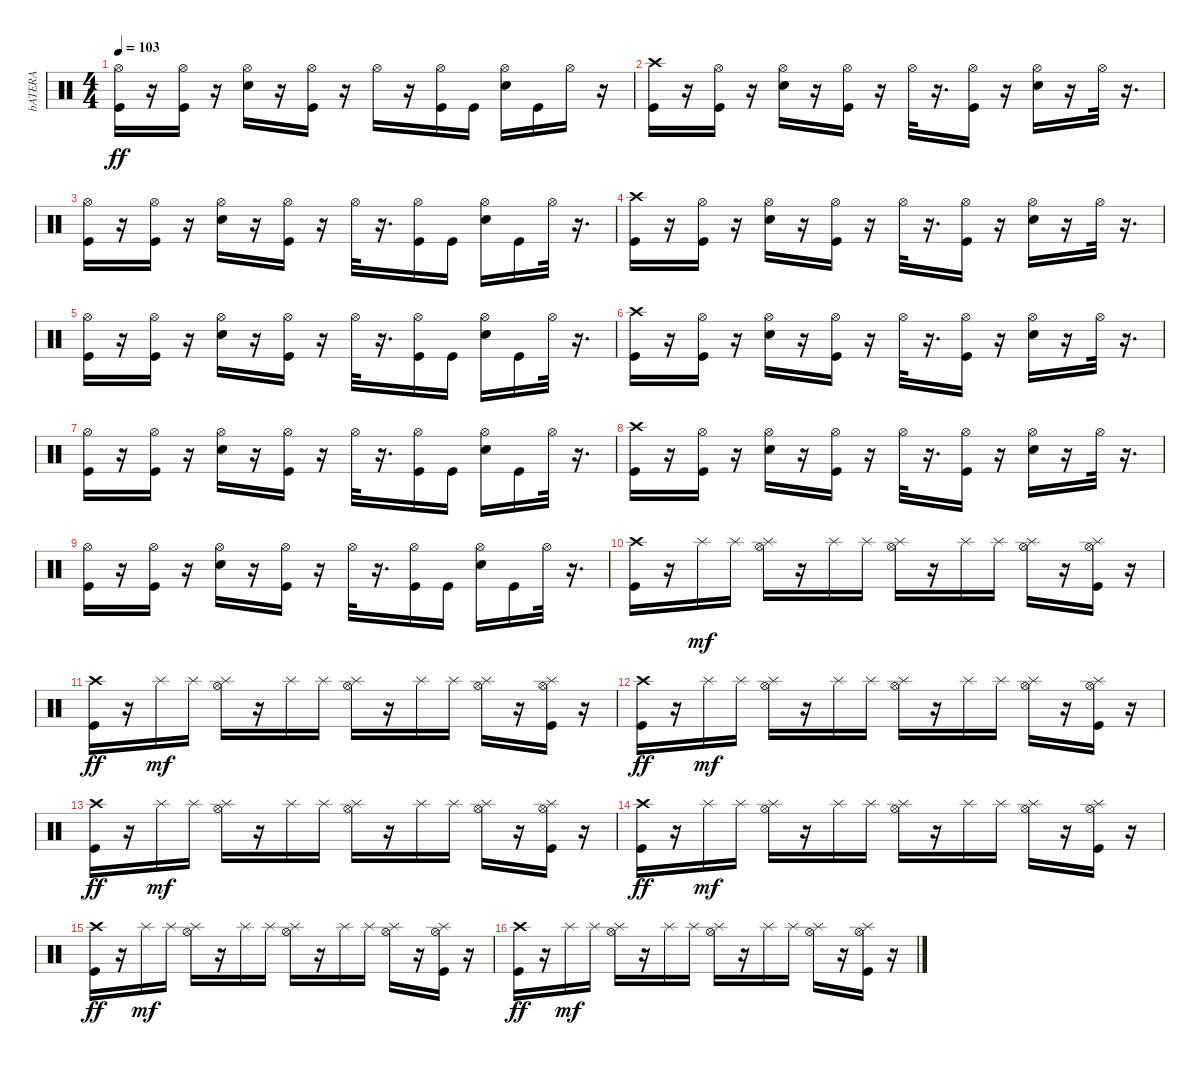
\track ("bATERA" "bATERA") {instrument percussion}
\staff {score}
\articulation defaults
\ts (4 4)
\tempo 103
\clef neutral
\ks c
("Kick (hit)" "Hi-Hat (open)").16{dy ff} r.16 ("Kick (hit)" "Hi-Hat (open)").16 r.16 ("Snare (hit) 2" "Hi-Hat (open)").16 r.16 ("Kick (hit)" "Hi-Hat (open)").16 r.16 "Hi-Hat (open)".16 r.16 ("Kick (hit)" "Hi-Hat (open)").16 "Kick (hit)".16 ("Hi-Hat (open)" "Snare (hit) 2").16 "Kick (hit)".16 "Hi-Hat (open)".16 r.16 |
("Crash high (hit)" "Kick (hit)").16 r.16 ("Kick (hit)" "Hi-Hat (open)").16 r.16 ("Snare (hit) 2" "Hi-Hat (open)").16 r.16 ("Kick (hit)" "Hi-Hat (open)").16 r.16 "Hi-Hat (open)".32 r.16{d} ("Kick (hit)" "Hi-Hat (open)").16 r.16 ("Snare (hit) 2" "Hi-Hat (open)").16 r.16 "Hi-Hat (open)".32 r.16{d} |
("Kick (hit)" "Hi-Hat (open)").16 r.16 ("Kick (hit)" "Hi-Hat (open)").16 r.16 ("Snare (hit) 2" "Hi-Hat (open)").16 r.16 ("Kick (hit)" "Hi-Hat (open)").16 r.16 "Hi-Hat (open)".32 r.16{d} ("Kick (hit)" "Hi-Hat (open)").16 "Kick (hit)".16 ("Snare (hit) 2" "Hi-Hat (open)").16 "Kick (hit)".16 "Hi-Hat (open)".32 r.16{d} |
("Kick (hit)" "Crash high (hit)").16 r.16 ("Kick (hit)" "Hi-Hat (open)").16 r.16 ("Snare (hit) 2" "Hi-Hat (open)").16 r.16 ("Kick (hit)" "Hi-Hat (open)").16 r.16 "Hi-Hat (open)".32 r.16{d} ("Kick (hit)" "Hi-Hat (open)").16 r.16 ("Snare (hit) 2" "Hi-Hat (open)").16 r.16 "Hi-Hat (open)".32 r.16{d} |
("Kick (hit)" "Hi-Hat (open)").16 r.16 ("Kick (hit)" "Hi-Hat (open)").16 r.16 ("Snare (hit) 2" "Hi-Hat (open)").16 r.16 ("Kick (hit)" "Hi-Hat (open)").16 r.16 "Hi-Hat (open)".32 r.16{d} ("Kick (hit)" "Hi-Hat (open)").16 "Kick (hit)".16 ("Snare (hit) 2" "Hi-Hat (open)").16 "Kick (hit)".16 "Hi-Hat (open)".32 r.16{d} |
("Crash high (hit)" "Kick (hit)").16 r.16 ("Kick (hit)" "Hi-Hat (open)").16 r.16 ("Snare (hit) 2" "Hi-Hat (open)").16 r.16 ("Kick (hit)" "Hi-Hat (open)").16 r.16 "Hi-Hat (open)".32 r.16{d} ("Kick (hit)" "Hi-Hat (open)").16 r.16 ("Snare (hit) 2" "Hi-Hat (open)").16 r.16 "Hi-Hat (open)".32 r.16{d} |
("Kick (hit)" "Hi-Hat (open)").16 r.16 ("Kick (hit)" "Hi-Hat (open)").16 r.16 ("Snare (hit) 2" "Hi-Hat (open)").16 r.16 ("Kick (hit)" "Hi-Hat (open)").16 r.16 "Hi-Hat (open)".32 r.16{d} ("Kick (hit)" "Hi-Hat (open)").16 "Kick (hit)".16 ("Snare (hit) 2" "Hi-Hat (open)").16 "Kick (hit)".16 "Hi-Hat (open)".32 r.16{d} |
("Kick (hit)" "Crash high (hit)").16 r.16 ("Kick (hit)" "Hi-Hat (open)").16 r.16 ("Snare (hit) 2" "Hi-Hat (open)").16 r.16 ("Kick (hit)" "Hi-Hat (open)").16 r.16 "Hi-Hat (open)".32 r.16{d} ("Kick (hit)" "Hi-Hat (open)").16 r.16 ("Snare (hit) 2" "Hi-Hat (open)").16 r.16 "Hi-Hat (open)".32 r.16{d} |
("Kick (hit)" "Hi-Hat (open)").16 r.16 ("Kick (hit)" "Hi-Hat (open)").16 r.16 ("Snare (hit) 2" "Hi-Hat (open)").16 r.16 ("Kick (hit)" "Hi-Hat (open)").16 r.16 "Hi-Hat (open)".32 r.16{d} ("Kick (hit)" "Hi-Hat (open)").16 "Kick (hit)".16 ("Snare (hit) 2" "Hi-Hat (open)").16 "Kick (hit)".16 "Hi-Hat (open)".32 r.16{d} |
("Kick (hit)" "Crash high (hit)").16 r.16 "Splash (hit)".16{dy mf} "Splash (hit)".16 ("Hi-Hat (open)" "Splash (hit)").16 r.16 "Splash (hit)".16 "Splash (hit)".16 ("Hi-Hat (open)" "Splash (hit)").16 r.16 "Splash (hit)".16 "Splash (hit)".16 ("Hi-Hat (open)" "Splash (hit)").16 r.16 ("Kick (hit)" "Hi-Hat (open)" "Splash (hit)").16 r.16 |
("Crash high (hit)" "Kick (hit)").16{dy ff} r.16 "Splash (hit)".16{dy mf} "Splash (hit)".16 ("Hi-Hat (open)" "Splash (hit)").16 r.16 "Splash (hit)".16 "Splash (hit)".16 ("Hi-Hat (open)" "Splash (hit)").16 r.16 "Splash (hit)".16 "Splash (hit)".16 ("Hi-Hat (open)" "Splash (hit)").16 r.16 ("Kick (hit)" "Hi-Hat (open)" "Splash (hit)").16 r.16 |
("Crash high (hit)" "Kick (hit)").16{dy ff} r.16 "Splash (hit)".16{dy mf} "Splash (hit)".16 ("Hi-Hat (open)" "Splash (hit)").16 r.16 "Splash (hit)".16 "Splash (hit)".16 ("Hi-Hat (open)" "Splash (hit)").16 r.16 "Splash (hit)".16 "Splash (hit)".16 ("Hi-Hat (open)" "Splash (hit)").16 r.16 ("Kick (hit)" "Hi-Hat (open)" "Splash (hit)").16 r.16 |
("Crash high (hit)" "Kick (hit)").16{dy ff} r.16 "Splash (hit)".16{dy mf} "Splash (hit)".16 ("Hi-Hat (open)" "Splash (hit)").16 r.16 "Splash (hit)".16 "Splash (hit)".16 ("Hi-Hat (open)" "Splash (hit)").16 r.16 "Splash (hit)".16 "Splash (hit)".16 ("Hi-Hat (open)" "Splash (hit)").16 r.16 ("Kick (hit)" "Hi-Hat (open)" "Splash (hit)").16 r.16 |
("Crash high (hit)" "Kick (hit)").16{dy ff} r.16 "Splash (hit)".16{dy mf} "Splash (hit)".16 ("Hi-Hat (open)" "Splash (hit)").16 r.16 "Splash (hit)".16 "Splash (hit)".16 ("Hi-Hat (open)" "Splash (hit)").16 r.16 "Splash (hit)".16 "Splash (hit)".16 ("Hi-Hat (open)" "Splash (hit)").16 r.16 ("Kick (hit)" "Hi-Hat (open)" "Splash (hit)").16 r.16 |
("Crash high (hit)" "Kick (hit)").16{dy ff} r.16 "Splash (hit)".16{dy mf} "Splash (hit)".16 ("Hi-Hat (open)" "Splash (hit)").16 r.16 "Splash (hit)".16 "Splash (hit)".16 ("Hi-Hat (open)" "Splash (hit)").16 r.16 "Splash (hit)".16 "Splash (hit)".16 ("Hi-Hat (open)" "Splash (hit)").16 r.16 ("Kick (hit)" "Hi-Hat (open)" "Splash (hit)").16 r.16 |
("Crash high (hit)" "Kick (hit)").16{dy ff} r.16 "Splash (hit)".16{dy mf} "Splash (hit)".16 ("Hi-Hat (open)" "Splash (hit)").16 r.16 "Splash (hit)".16 "Splash (hit)".16 ("Hi-Hat (open)" "Splash (hit)").16 r.16 "Splash (hit)".16 "Splash (hit)".16 ("Hi-Hat (open)" "Splash (hit)").16 r.16 ("Kick (hit)" "Hi-Hat (open)" "Splash (hit)").16 r.16
